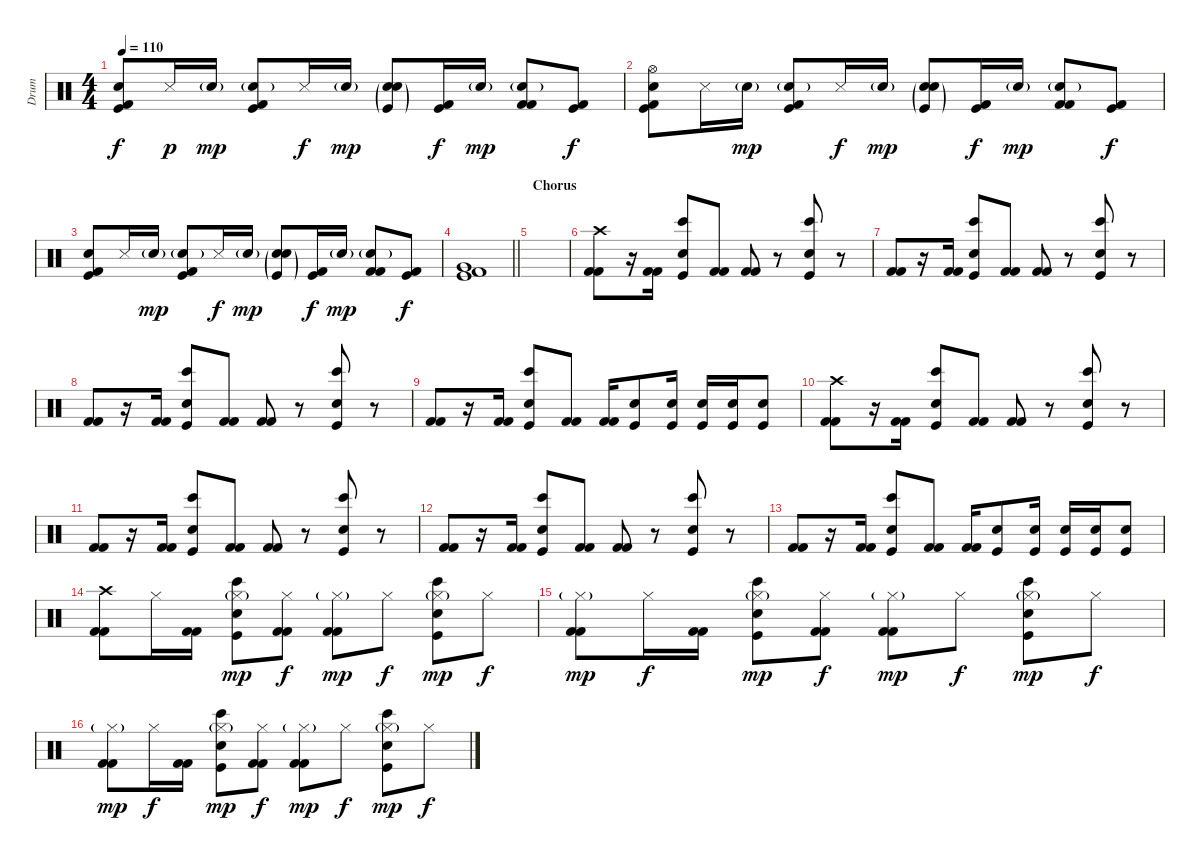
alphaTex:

\track ("Drum" "Drum") {instrument percussion}
\staff {score}
\articulation defaults
\ts (4 4)
\tempo 110
\clef neutral
\ks c
("Hand Clap (hit)" "Kick (hit) 2" "Kick (hit)").8{dy f} "Snare (side stick) 3".16{dy p} "Hand Clap (hit)"{g}.16{dy mp} ("Hand Clap (hit)"{g} "Kick (hit) 2" "Kick (hit)").8 "Snare (side stick) 3".16{dy f} "Hand Clap (hit)"{g}.16{dy mp} ("Hand Clap (hit)"{g} "Snare (hit) 2"{g} "Kick (hit)"{g}).8 ("Kick (hit) 2" "Kick (hit)").16{dy f} "Hand Clap (hit)"{g}.16{dy mp} ("Hand Clap (hit)"{g} "Kick (hit) 2" "Kick (hit) 2").8 ("Kick (hit) 2" "Kick (hit)").8{dy f} |
("Hi-Hat (open)" "Hand Clap (hit)" "Kick (hit) 2" "Kick (hit)").8 "Snare (side stick) 3".16 "Hand Clap (hit)"{g}.16{dy mp} ("Hand Clap (hit)"{g} "Kick (hit) 2" "Kick (hit)").8 "Snare (side stick) 3".16{dy f} "Hand Clap (hit)"{g}.16{dy mp} ("Hand Clap (hit)"{g} "Snare (hit) 2"{g} "Kick (hit)"{g}).8 ("Kick (hit) 2" "Kick (hit)").16{dy f} "Hand Clap (hit)"{g}.16{dy mp} ("Hand Clap (hit)"{g} "Kick (hit) 2" "Kick (hit) 2").8 ("Kick (hit) 2" "Kick (hit)").8{dy f} |
("Hand Clap (hit)" "Kick (hit) 2" "Kick (hit)").8 "Snare (side stick) 3".16 "Hand Clap (hit)"{g}.16{dy mp} ("Hand Clap (hit)"{g} "Kick (hit) 2" "Kick (hit)").8 "Snare (side stick) 3".16{dy f} "Hand Clap (hit)"{g}.16{dy mp} ("Hand Clap (hit)"{g} "Snare (hit) 2"{g} "Kick (hit)"{g}).8 ("Kick (hit) 2" "Kick (hit)").16{dy f} "Hand Clap (hit)"{g}.16{dy mp} ("Hand Clap (hit)"{g} "Kick (hit) 2" "Kick (hit) 2").8 ("Kick (hit) 2" "Kick (hit)").8{dy f} |
\barLineRight lightlight
("Very Low Tom (hit)" "Kick (hit) 2" "Kick (hit)").1 |
\section ("" "Chorus")
|
("Crash high (hit)" "Kick (hit) 2" "Kick (hit) 2").8 r.16 ("Kick (hit) 2" "Kick (hit) 2").16 ("Bongo High (hit)" "Electric Snare (hit)" "Kick (hit)").8 ("Kick (hit) 2" "Kick (hit) 2").8 ("Kick (hit) 2" "Kick (hit) 2").8 r.8 ("Bongo High (hit)" "Electric Snare (hit)" "Kick (hit)").8 r.8 |
("Kick (hit) 2" "Kick (hit) 2").8 r.16 ("Kick (hit) 2" "Kick (hit) 2").16 ("Bongo High (hit)" "Electric Snare (hit)" "Kick (hit)").8 ("Kick (hit) 2" "Kick (hit) 2").8 ("Kick (hit) 2" "Kick (hit) 2").8 r.8 ("Bongo High (hit)" "Electric Snare (hit)" "Kick (hit)").8 r.8 |
("Kick (hit) 2" "Kick (hit) 2").8 r.16 ("Kick (hit) 2" "Kick (hit) 2").16 ("Bongo High (hit)" "Electric Snare (hit)" "Kick (hit)").8 ("Kick (hit) 2" "Kick (hit) 2").8 ("Kick (hit) 2" "Kick (hit) 2").8 r.8 ("Bongo High (hit)" "Electric Snare (hit)" "Kick (hit)").8 r.8 |
("Kick (hit) 2" "Kick (hit) 2").8 r.16 ("Kick (hit) 2" "Kick (hit) 2").16 ("Bongo High (hit)" "Electric Snare (hit)" "Kick (hit)").8 ("Kick (hit) 2" "Kick (hit) 2").8 ("Kick (hit) 2" "Kick (hit) 2").16 ("Electric Snare (hit)" "Kick (hit)").8 ("Electric Snare (hit)" "Kick (hit)").16 ("Electric Snare (hit)" "Kick (hit)").16 ("Electric Snare (hit)" "Kick (hit)").16 ("Electric Snare (hit)" "Kick (hit)").8 |
("Crash high (hit)" "Kick (hit) 2" "Kick (hit) 2").8 r.16 ("Kick (hit) 2" "Kick (hit) 2").16 ("Bongo High (hit)" "Electric Snare (hit)" "Kick (hit)").8 ("Kick (hit) 2" "Kick (hit) 2").8 ("Kick (hit) 2" "Kick (hit) 2").8 r.8 ("Bongo High (hit)" "Electric Snare (hit)" "Kick (hit)").8 r.8 |
("Kick (hit) 2" "Kick (hit) 2").8 r.16 ("Kick (hit) 2" "Kick (hit) 2").16 ("Bongo High (hit)" "Electric Snare (hit)" "Kick (hit)").8 ("Kick (hit) 2" "Kick (hit) 2").8 ("Kick (hit) 2" "Kick (hit) 2").8 r.8 ("Bongo High (hit)" "Electric Snare (hit)" "Kick (hit)").8 r.8 |
("Kick (hit) 2" "Kick (hit) 2").8 r.16 ("Kick (hit) 2" "Kick (hit) 2").16 ("Bongo High (hit)" "Electric Snare (hit)" "Kick (hit)").8 ("Kick (hit) 2" "Kick (hit) 2").8 ("Kick (hit) 2" "Kick (hit) 2").8 r.8 ("Bongo High (hit)" "Electric Snare (hit)" "Kick (hit)").8 r.8 |
("Kick (hit) 2" "Kick (hit) 2").8 r.16 ("Kick (hit) 2" "Kick (hit) 2").16 ("Bongo High (hit)" "Electric Snare (hit)" "Kick (hit)").8 ("Kick (hit) 2" "Kick (hit) 2").8 ("Kick (hit) 2" "Kick (hit) 2").16 ("Electric Snare (hit)" "Kick (hit)").8 ("Electric Snare (hit)" "Kick (hit)").16 ("Electric Snare (hit)" "Kick (hit)").16 ("Electric Snare (hit)" "Kick (hit)").16 ("Electric Snare (hit)" "Kick (hit)").8 |
("Crash high (hit)" "Kick (hit) 2" "Kick (hit) 2").8 "Hi-Hat (closed)".16 ("Kick (hit) 2" "Kick (hit) 2").16 ("Hi-Hat (closed)"{g} "Bongo High (hit)" "Electric Snare (hit)" "Kick (hit)").8{dy mp} ("Hi-Hat (closed)" "Kick (hit) 2" "Kick (hit) 2").8{dy f} ("Hi-Hat (closed)"{g} "Kick (hit) 2" "Kick (hit) 2").8{dy mp} "Hi-Hat (closed)".8{dy f} ("Hi-Hat (closed)"{g} "Bongo High (hit)" "Electric Snare (hit)" "Kick (hit)").8{dy mp} "Hi-Hat (closed)".8{dy f} |
("Hi-Hat (closed)"{g} "Kick (hit) 2" "Kick (hit) 2").8{dy mp} "Hi-Hat (closed)".16{dy f} ("Kick (hit) 2" "Kick (hit) 2").16 ("Hi-Hat (closed)"{g} "Bongo High (hit)" "Electric Snare (hit)" "Kick (hit)").8{dy mp} ("Hi-Hat (closed)" "Kick (hit) 2" "Kick (hit) 2").8{dy f} ("Hi-Hat (closed)"{g} "Kick (hit) 2" "Kick (hit) 2").8{dy mp} "Hi-Hat (closed)".8{dy f} ("Hi-Hat (closed)"{g} "Bongo High (hit)" "Electric Snare (hit)" "Kick (hit)").8{dy mp} "Hi-Hat (closed)".8{dy f} |
("Hi-Hat (closed)"{g} "Kick (hit) 2" "Kick (hit) 2").8{dy mp} "Hi-Hat (closed)".16{dy f} ("Kick (hit) 2" "Kick (hit) 2").16 ("Hi-Hat (closed)"{g} "Bongo High (hit)" "Electric Snare (hit)" "Kick (hit)").8{dy mp} ("Hi-Hat (closed)" "Kick (hit) 2" "Kick (hit) 2").8{dy f} ("Hi-Hat (closed)"{g} "Kick (hit) 2" "Kick (hit) 2").8{dy mp} "Hi-Hat (closed)".8{dy f} ("Hi-Hat (closed)"{g} "Bongo High (hit)" "Electric Snare (hit)" "Kick (hit)").8{dy mp} "Hi-Hat (closed)".8{dy f}
